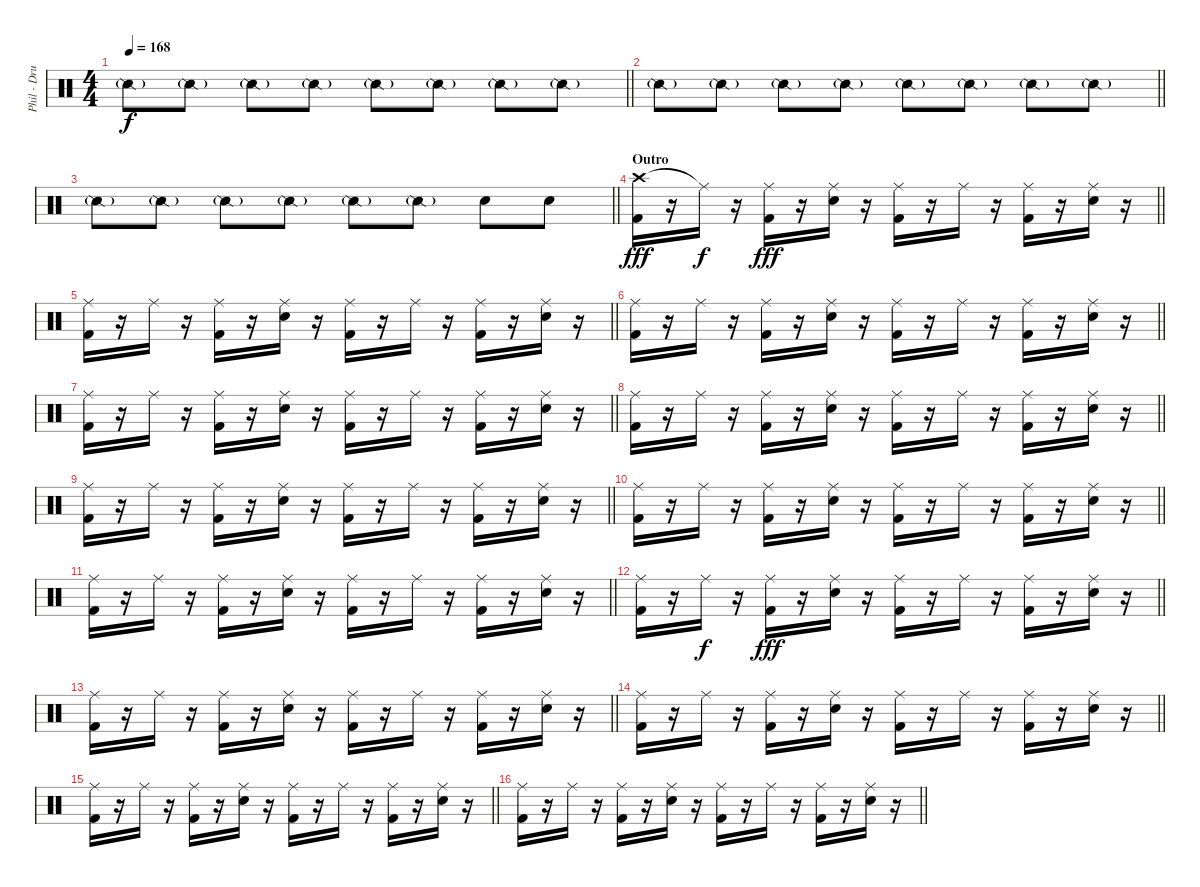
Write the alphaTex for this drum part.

\track ("Phil - Drums" "Phil - Dru") {instrument percussion}
\staff {score}
\articulation defaults
\ts (4 4)
\tempo 168
\clef neutral
\barLineRight lightlight
\ks c "Snare (side stick) 2"{g}.8{dy f} "Snare (side stick) 2"{g}.8 "Snare (side stick) 2"{g}.8 "Snare (side stick) 2"{g}.8 "Snare (side stick) 2"{g}.8 "Snare (side stick) 2"{g}.8 "Snare (side stick) 2"{g}.8 "Snare (side stick) 2"{g}.8
|
\barLineRight lightlight "Snare (side stick) 2"{g}.8 "Snare (side stick) 2"{g}.8 "Snare (side stick) 2"{g}.8 "Snare (side stick) 2"{g}.8 "Snare (side stick) 2"{g}.8 "Snare (side stick) 2"{g}.8 "Snare (side stick) 2"{g}.8 "Snare (side stick) 2"{g}.8
|
\barLineRight lightlight "Snare (side stick) 2"{g}.8 "Snare (side stick) 2"{g}.8 "Snare (side stick) 2"{g}.8 "Snare (side stick) 2"{g}.8 "Snare (side stick) 2"{g}.8 "Snare (side stick) 2"{g}.8 "Electric Snare (hit)".8 "Electric Snare (hit)".8
|
\section ("" "Outro")
\barLineRight lightlight
("Crash high (hit)" "Kick (hit) 2").16{dy fff} r.16 "Ride (middle)"{t}.16{dy f} r.16 ("Ride (middle)" "Kick (hit) 2").16{dy fff} r.16 ("Ride (middle)" "Electric Snare (hit)").16 r.16 ("Ride (middle)" "Kick (hit) 2").16 r.16 "Ride (middle)".16 r.16 ("Ride (middle)" "Kick (hit) 2").16 r.16 ("Ride (middle)" "Electric Snare (hit)").16 r.16 |
\barLineRight lightlight
("Ride (middle)" "Kick (hit) 2").16 r.16 "Ride (middle)".16 r.16 ("Ride (middle)" "Kick (hit) 2").16 r.16 ("Ride (middle)" "Electric Snare (hit)").16 r.16 ("Ride (middle)" "Kick (hit) 2").16 r.16 "Ride (middle)".16 r.16 ("Ride (middle)" "Kick (hit) 2").16 r.16 ("Ride (middle)" "Electric Snare (hit)").16 r.16 |
\barLineRight lightlight
("Ride (middle)" "Kick (hit) 2").16 r.16 "Ride (middle)".16 r.16 ("Ride (middle)" "Kick (hit) 2").16 r.16 ("Ride (middle)" "Electric Snare (hit)").16 r.16 ("Ride (middle)" "Kick (hit) 2").16 r.16 "Ride (middle)".16 r.16 ("Ride (middle)" "Kick (hit) 2").16 r.16 ("Ride (middle)" "Electric Snare (hit)").16 r.16 |
\barLineRight lightlight
("Ride (middle)" "Kick (hit) 2").16 r.16 "Ride (middle)".16 r.16 ("Ride (middle)" "Kick (hit) 2").16 r.16 ("Ride (middle)" "Electric Snare (hit)").16 r.16 ("Ride (middle)" "Kick (hit) 2").16 r.16 "Ride (middle)".16 r.16 ("Ride (middle)" "Kick (hit) 2").16 r.16 ("Ride (middle)" "Electric Snare (hit)").16 r.16 |
\barLineRight lightlight
("Ride (middle)" "Kick (hit) 2").16 r.16 "Ride (middle)".16 r.16 ("Ride (middle)" "Kick (hit) 2").16 r.16 ("Ride (middle)" "Electric Snare (hit)").16 r.16 ("Ride (middle)" "Kick (hit) 2").16 r.16 "Ride (middle)".16 r.16 ("Ride (middle)" "Kick (hit) 2").16 r.16 ("Ride (middle)" "Electric Snare (hit)").16 r.16 |
\barLineRight lightlight
("Ride (middle)" "Kick (hit) 2").16 r.16 "Ride (middle)".16 r.16 ("Ride (middle)" "Kick (hit) 2").16 r.16 ("Ride (middle)" "Electric Snare (hit)").16 r.16 ("Ride (middle)" "Kick (hit) 2").16 r.16 "Ride (middle)".16 r.16 ("Ride (middle)" "Kick (hit) 2").16 r.16 ("Ride (middle)" "Electric Snare (hit)").16 r.16 |
\barLineRight lightlight
("Ride (middle)" "Kick (hit) 2").16 r.16 "Ride (middle)".16 r.16 ("Ride (middle)" "Kick (hit) 2").16 r.16 ("Ride (middle)" "Electric Snare (hit)").16 r.16 ("Ride (middle)" "Kick (hit) 2").16 r.16 "Ride (middle)".16 r.16 ("Ride (middle)" "Kick (hit) 2").16 r.16 ("Ride (middle)" "Electric Snare (hit)").16 r.16 |
\barLineRight lightlight
("Ride (middle)" "Kick (hit) 2").16 r.16 "Ride (middle)".16 r.16 ("Ride (middle)" "Kick (hit) 2").16 r.16 ("Ride (middle)" "Electric Snare (hit)").16 r.16 ("Ride (middle)" "Kick (hit) 2").16 r.16 "Ride (middle)".16 r.16 ("Ride (middle)" "Kick (hit) 2").16 r.16 ("Ride (middle)" "Electric Snare (hit)").16 r.16 |
\barLineRight lightlight
("Ride (middle)" "Kick (hit) 2").16 r.16 "Ride (middle)".16{dy f} r.16 ("Ride (middle)" "Kick (hit) 2").16{dy fff} r.16 ("Ride (middle)" "Electric Snare (hit)").16 r.16 ("Ride (middle)" "Kick (hit) 2").16 r.16 "Ride (middle)".16 r.16 ("Ride (middle)" "Kick (hit) 2").16 r.16 ("Ride (middle)" "Electric Snare (hit)").16 r.16 |
\barLineRight lightlight
("Ride (middle)" "Kick (hit) 2").16 r.16 "Ride (middle)".16 r.16 ("Ride (middle)" "Kick (hit) 2").16 r.16 ("Ride (middle)" "Electric Snare (hit)").16 r.16 ("Ride (middle)" "Kick (hit) 2").16 r.16 "Ride (middle)".16 r.16 ("Ride (middle)" "Kick (hit) 2").16 r.16 ("Ride (middle)" "Electric Snare (hit)").16 r.16 |
\barLineRight lightlight
("Ride (middle)" "Kick (hit) 2").16 r.16 "Ride (middle)".16 r.16 ("Ride (middle)" "Kick (hit) 2").16 r.16 ("Ride (middle)" "Electric Snare (hit)").16 r.16 ("Ride (middle)" "Kick (hit) 2").16 r.16 "Ride (middle)".16 r.16 ("Ride (middle)" "Kick (hit) 2").16 r.16 ("Ride (middle)" "Electric Snare (hit)").16 r.16 |
\barLineRight lightlight
("Ride (middle)" "Kick (hit) 2").16 r.16 "Ride (middle)".16 r.16 ("Ride (middle)" "Kick (hit) 2").16 r.16 ("Ride (middle)" "Electric Snare (hit)").16 r.16 ("Ride (middle)" "Kick (hit) 2").16 r.16 "Ride (middle)".16 r.16 ("Ride (middle)" "Kick (hit) 2").16 r.16 ("Ride (middle)" "Electric Snare (hit)").16 r.16 |
\barLineRight lightlight
("Ride (middle)" "Kick (hit) 2").16 r.16 "Ride (middle)".16 r.16 ("Ride (middle)" "Kick (hit) 2").16 r.16 ("Ride (middle)" "Electric Snare (hit)").16 r.16 ("Ride (middle)" "Kick (hit) 2").16 r.16 "Ride (middle)".16 r.16 ("Ride (middle)" "Kick (hit) 2").16 r.16 ("Ride (middle)" "Electric Snare (hit)").16 r.16
